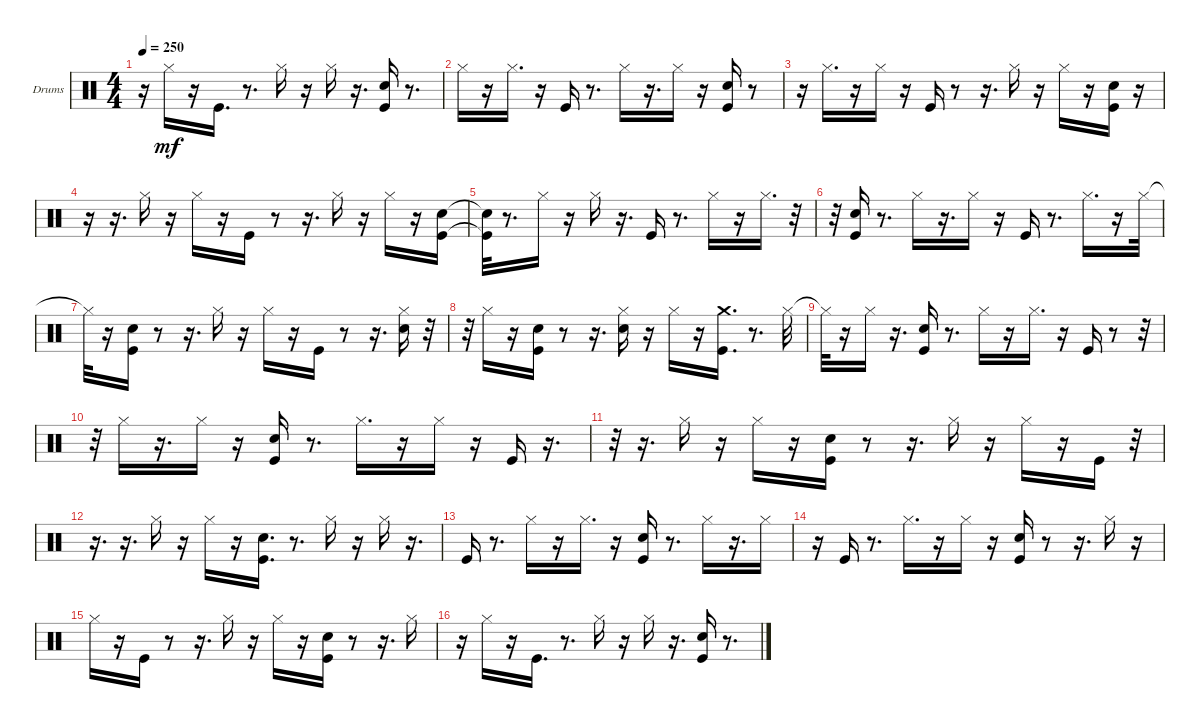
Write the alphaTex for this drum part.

\bracketExtendMode groupsimilarinstruments
\firstSystemTrackNameOrientation horizontal
\otherSystemsTrackNameOrientation horizontal
\track ("Drums" "Drums") {instrument percussion}
\staff {score}
\articulation defaults
\ts (4 4)
\tempo 250
\clef neutral
\ks c
r.16{dy mf} "Hi-Hat (closed)".16 r.16 "Kick (hit)".16{d} r.8{d} "Hi-Hat (closed)".16 r.16 "Hi-Hat (closed)".16 r.16{d} ("Kick (hit)" "Snare (hit) 2").16 r.8{d} |
"Hi-Hat (closed)".16 r.16 "Hi-Hat (closed)".16{d} r.16 "Kick (hit)".16 r.8{d} "Hi-Hat (closed)".16 r.16{d} "Hi-Hat (closed)".16 r.16 ("Kick (hit)" "Snare (hit) 2").16 r.8 |
r.16 "Hi-Hat (closed)".16{d} r.16 "Hi-Hat (closed)".16 r.16 "Kick (hit)".16 r.8 r.16{d} "Hi-Hat (closed)".16 r.16 "Hi-Hat (closed)".16 r.16 ("Kick (hit)" "Snare (hit) 2").16 r.16 |
r.16 r.16{d} "Hi-Hat (closed)".16 r.16 "Hi-Hat (closed)".16 r.16 "Kick (hit)".16 r.8 r.16{d} "Hi-Hat (closed)".16 r.16 "Hi-Hat (closed)".16 r.16 ("Kick (hit)" "Snare (hit) 2").16 |
("Kick (hit)"{t} "Snare (hit) 2"{t}).32 r.8{d} "Hi-Hat (closed)".16 r.16 "Hi-Hat (closed)".16 r.16{d} "Kick (hit)".16 r.8{d} "Hi-Hat (closed)".16 r.16 "Hi-Hat (closed)".16{d} r.32 |
r.32 ("Kick (hit)" "Snare (hit) 2").16 r.8{d} "Hi-Hat (closed)".16 r.16{d} "Hi-Hat (closed)".16 r.16 "Kick (hit)".16 r.8{d} "Hi-Hat (closed)".16{d} r.16 "Hi-Hat (closed)".32 |
"Hi-Hat (closed)"{t}.32 r.16 ("Kick (hit)" "Snare (hit) 2").16 r.8 r.16{d} "Hi-Hat (closed)".16 r.16 "Hi-Hat (closed)".16 r.16 "Kick (hit)".16 r.8 r.16{d} ("Hi-Hat (closed)" "Snare (hit) 2").16 r.32 |
r.32 "Hi-Hat (closed)".16 r.16 ("Kick (hit)" "Snare (hit) 2").16 r.8 r.16{d} ("Hi-Hat (closed)" "Snare (hit) 2").16 r.16 "Hi-Hat (closed)".16 r.16 ("Kick (hit)" "Crash medium (hit)").16{d} r.8{d} "Hi-Hat (closed)".32 |
"Hi-Hat (closed)"{t}.32 r.16 "Hi-Hat (closed)".16 r.16{d} ("Kick (hit)" "Snare (hit) 2").16 r.8{d} "Hi-Hat (closed)".16 r.16 "Hi-Hat (closed)".16{d} r.16 "Kick (hit)".16 r.8 r.32 |
r.32 "Hi-Hat (closed)".16 r.16{d} "Hi-Hat (closed)".16 r.16 ("Kick (hit)" "Snare (hit) 2").16 r.8{d} "Hi-Hat (closed)".16{d} r.16 "Hi-Hat (closed)".16 r.16 "Kick (hit)".16 r.16{d} |
r.32 r.16{d} "Hi-Hat (closed)".16 r.16 "Hi-Hat (closed)".16 r.16 ("Kick (hit)" "Snare (hit) 2").16 r.8 r.16{d} "Hi-Hat (closed)".16 r.16 "Hi-Hat (closed)".16 r.16 "Kick (hit)".16 r.32 |
r.16{d} r.16{d} "Hi-Hat (closed)".16 r.16 "Hi-Hat (closed)".16 r.16 ("Kick (hit)" "Snare (hit) 2").16{d} r.8{d} "Hi-Hat (closed)".16 r.16 "Hi-Hat (closed)".16 r.16{d} |
"Kick (hit)".16 r.8{d} "Hi-Hat (closed)".16 r.16 "Hi-Hat (closed)".16{d} r.16 ("Kick (hit)" "Snare (hit) 2").16 r.8{d} "Hi-Hat (closed)".16 r.16{d} "Hi-Hat (closed)".16 |
r.16 "Kick (hit)".16 r.8{d} "Hi-Hat (closed)".16{d} r.16 "Hi-Hat (closed)".16 r.16 ("Kick (hit)" "Snare (hit) 2").16 r.8 r.16{d} "Hi-Hat (closed)".16 r.16 |
"Hi-Hat (closed)".16 r.16 "Kick (hit)".16 r.8 r.16{d} "Hi-Hat (closed)".16 r.16 "Hi-Hat (closed)".16 r.16 ("Kick (hit)" "Snare (hit) 2").16 r.8 r.16{d} "Hi-Hat (closed)".16 |
r.16 "Hi-Hat (closed)".16 r.16 "Kick (hit)".16{d} r.8{d} "Hi-Hat (closed)".16 r.16 "Hi-Hat (closed)".16 r.16{d} ("Kick (hit)" "Snare (hit) 2").16 r.8{d}
